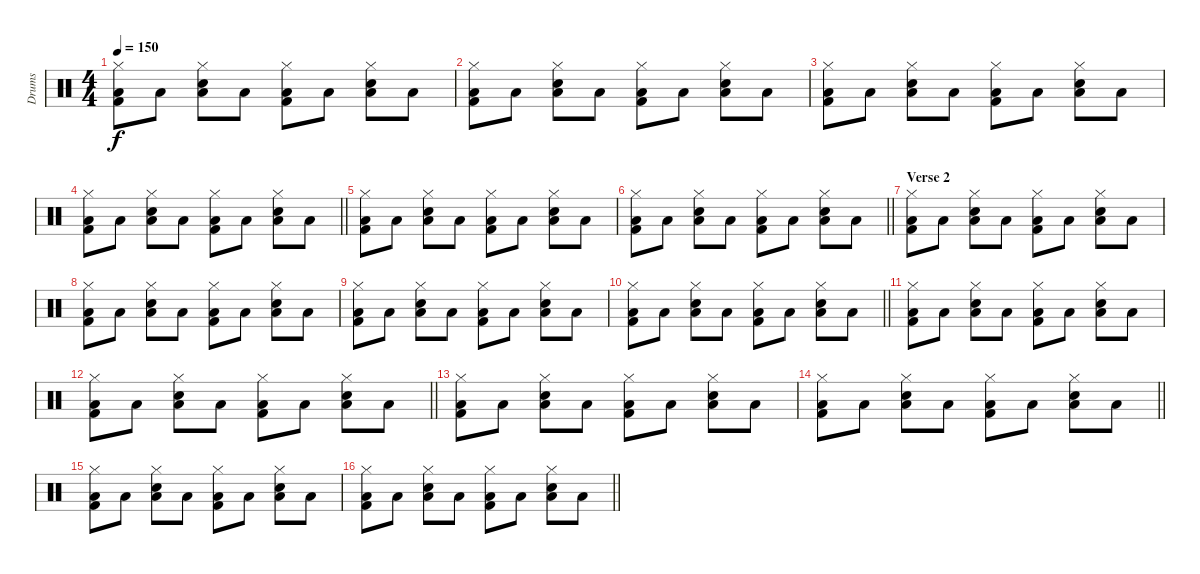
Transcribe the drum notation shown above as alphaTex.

\track ("Drums" "Drums") {instrument percussion}
\staff {score}
\articulation defaults
\ts (4 4)
\tempo 150
\clef neutral
\ks c
("Hi-Hat (closed)" "Low Tom (hit)" "Kick (hit) 2").8{dy f} "Low Tom (hit)".8 ("Hi-Hat (closed)" "Low Tom (hit)" "Electric Snare (hit)").8 "Low Tom (hit)".8 ("Hi-Hat (closed)" "Low Tom (hit)" "Kick (hit) 2").8 "Low Tom (hit)".8 ("Hi-Hat (closed)" "Low Tom (hit)" "Electric Snare (hit)").8 "Low Tom (hit)".8 |
("Hi-Hat (closed)" "Low Tom (hit)" "Kick (hit) 2").8 "Low Tom (hit)".8 ("Hi-Hat (closed)" "Low Tom (hit)" "Electric Snare (hit)").8 "Low Tom (hit)".8 ("Hi-Hat (closed)" "Low Tom (hit)" "Kick (hit) 2").8 "Low Tom (hit)".8 ("Hi-Hat (closed)" "Low Tom (hit)" "Electric Snare (hit)").8 "Low Tom (hit)".8 |
("Hi-Hat (closed)" "Low Tom (hit)" "Kick (hit) 2").8 "Low Tom (hit)".8 ("Hi-Hat (closed)" "Low Tom (hit)" "Electric Snare (hit)").8 "Low Tom (hit)".8 ("Hi-Hat (closed)" "Low Tom (hit)" "Kick (hit) 2").8 "Low Tom (hit)".8 ("Hi-Hat (closed)" "Low Tom (hit)" "Electric Snare (hit)").8 "Low Tom (hit)".8 |
\barLineRight lightlight
("Hi-Hat (closed)" "Low Tom (hit)" "Kick (hit) 2").8 "Low Tom (hit)".8 ("Hi-Hat (closed)" "Low Tom (hit)" "Electric Snare (hit)").8 "Low Tom (hit)".8 ("Hi-Hat (closed)" "Low Tom (hit)" "Kick (hit) 2").8 "Low Tom (hit)".8 ("Hi-Hat (closed)" "Low Tom (hit)" "Electric Snare (hit)").8 "Low Tom (hit)".8 |
("Hi-Hat (closed)" "Low Tom (hit)" "Kick (hit) 2").8 "Low Tom (hit)".8 ("Hi-Hat (closed)" "Low Tom (hit)" "Electric Snare (hit)").8 "Low Tom (hit)".8 ("Hi-Hat (closed)" "Low Tom (hit)" "Kick (hit) 2").8 "Low Tom (hit)".8 ("Hi-Hat (closed)" "Low Tom (hit)" "Electric Snare (hit)").8 "Low Tom (hit)".8 |
\barLineRight lightlight
("Hi-Hat (closed)" "Low Tom (hit)" "Kick (hit) 2").8 "Low Tom (hit)".8 ("Hi-Hat (closed)" "Low Tom (hit)" "Electric Snare (hit)").8 "Low Tom (hit)".8 ("Hi-Hat (closed)" "Low Tom (hit)" "Kick (hit) 2").8 "Low Tom (hit)".8 ("Hi-Hat (closed)" "Low Tom (hit)" "Electric Snare (hit)").8 "Low Tom (hit)".8 |
\section ("" "Verse 2")
("Hi-Hat (closed)" "Low Tom (hit)" "Kick (hit) 2").8 "Low Tom (hit)".8 ("Hi-Hat (closed)" "Low Tom (hit)" "Electric Snare (hit)").8 "Low Tom (hit)".8 ("Hi-Hat (closed)" "Low Tom (hit)" "Kick (hit) 2").8 "Low Tom (hit)".8 ("Hi-Hat (closed)" "Low Tom (hit)" "Electric Snare (hit)").8 "Low Tom (hit)".8 |
("Hi-Hat (closed)" "Low Tom (hit)" "Kick (hit) 2").8 "Low Tom (hit)".8 ("Hi-Hat (closed)" "Low Tom (hit)" "Electric Snare (hit)").8 "Low Tom (hit)".8 ("Hi-Hat (closed)" "Low Tom (hit)" "Kick (hit) 2").8 "Low Tom (hit)".8 ("Hi-Hat (closed)" "Low Tom (hit)" "Electric Snare (hit)").8 "Low Tom (hit)".8 |
("Hi-Hat (closed)" "Low Tom (hit)" "Kick (hit) 2").8 "Low Tom (hit)".8 ("Hi-Hat (closed)" "Low Tom (hit)" "Electric Snare (hit)").8 "Low Tom (hit)".8 ("Hi-Hat (closed)" "Low Tom (hit)" "Kick (hit) 2").8 "Low Tom (hit)".8 ("Hi-Hat (closed)" "Low Tom (hit)" "Electric Snare (hit)").8 "Low Tom (hit)".8 |
\barLineRight lightlight
("Hi-Hat (closed)" "Low Tom (hit)" "Kick (hit) 2").8 "Low Tom (hit)".8 ("Hi-Hat (closed)" "Low Tom (hit)" "Electric Snare (hit)").8 "Low Tom (hit)".8 ("Hi-Hat (closed)" "Low Tom (hit)" "Kick (hit) 2").8 "Low Tom (hit)".8 ("Hi-Hat (closed)" "Low Tom (hit)" "Electric Snare (hit)").8 "Low Tom (hit)".8 |
("Hi-Hat (closed)" "Low Tom (hit)" "Kick (hit) 2").8 "Low Tom (hit)".8 ("Hi-Hat (closed)" "Low Tom (hit)" "Electric Snare (hit)").8 "Low Tom (hit)".8 ("Hi-Hat (closed)" "Low Tom (hit)" "Kick (hit) 2").8 "Low Tom (hit)".8 ("Hi-Hat (closed)" "Low Tom (hit)" "Electric Snare (hit)").8 "Low Tom (hit)".8 |
\barLineRight lightlight
("Hi-Hat (closed)" "Low Tom (hit)" "Kick (hit) 2").8 "Low Tom (hit)".8 ("Hi-Hat (closed)" "Low Tom (hit)" "Electric Snare (hit)").8 "Low Tom (hit)".8 ("Hi-Hat (closed)" "Low Tom (hit)" "Kick (hit) 2").8 "Low Tom (hit)".8 ("Hi-Hat (closed)" "Low Tom (hit)" "Electric Snare (hit)").8 "Low Tom (hit)".8 |
("Hi-Hat (closed)" "Low Tom (hit)" "Kick (hit) 2").8 "Low Tom (hit)".8 ("Hi-Hat (closed)" "Low Tom (hit)" "Electric Snare (hit)").8 "Low Tom (hit)".8 ("Hi-Hat (closed)" "Low Tom (hit)" "Kick (hit) 2").8 "Low Tom (hit)".8 ("Hi-Hat (closed)" "Low Tom (hit)" "Electric Snare (hit)").8 "Low Tom (hit)".8 |
\barLineRight lightlight
("Hi-Hat (closed)" "Low Tom (hit)" "Kick (hit) 2").8 "Low Tom (hit)".8 ("Hi-Hat (closed)" "Low Tom (hit)" "Electric Snare (hit)").8 "Low Tom (hit)".8 ("Hi-Hat (closed)" "Low Tom (hit)" "Kick (hit) 2").8 "Low Tom (hit)".8 ("Hi-Hat (closed)" "Low Tom (hit)" "Electric Snare (hit)").8 "Low Tom (hit)".8 |
("Hi-Hat (closed)" "Low Tom (hit)" "Kick (hit) 2").8 "Low Tom (hit)".8 ("Hi-Hat (closed)" "Low Tom (hit)" "Electric Snare (hit)").8 "Low Tom (hit)".8 ("Hi-Hat (closed)" "Low Tom (hit)" "Kick (hit) 2").8 "Low Tom (hit)".8 ("Hi-Hat (closed)" "Low Tom (hit)" "Electric Snare (hit)").8 "Low Tom (hit)".8 |
\barLineRight lightlight
("Hi-Hat (closed)" "Low Tom (hit)" "Kick (hit) 2").8 "Low Tom (hit)".8 ("Hi-Hat (closed)" "Low Tom (hit)" "Electric Snare (hit)").8 "Low Tom (hit)".8 ("Hi-Hat (closed)" "Low Tom (hit)" "Kick (hit) 2").8 "Low Tom (hit)".8 ("Hi-Hat (closed)" "Low Tom (hit)" "Electric Snare (hit)").8 "Low Tom (hit)".8
